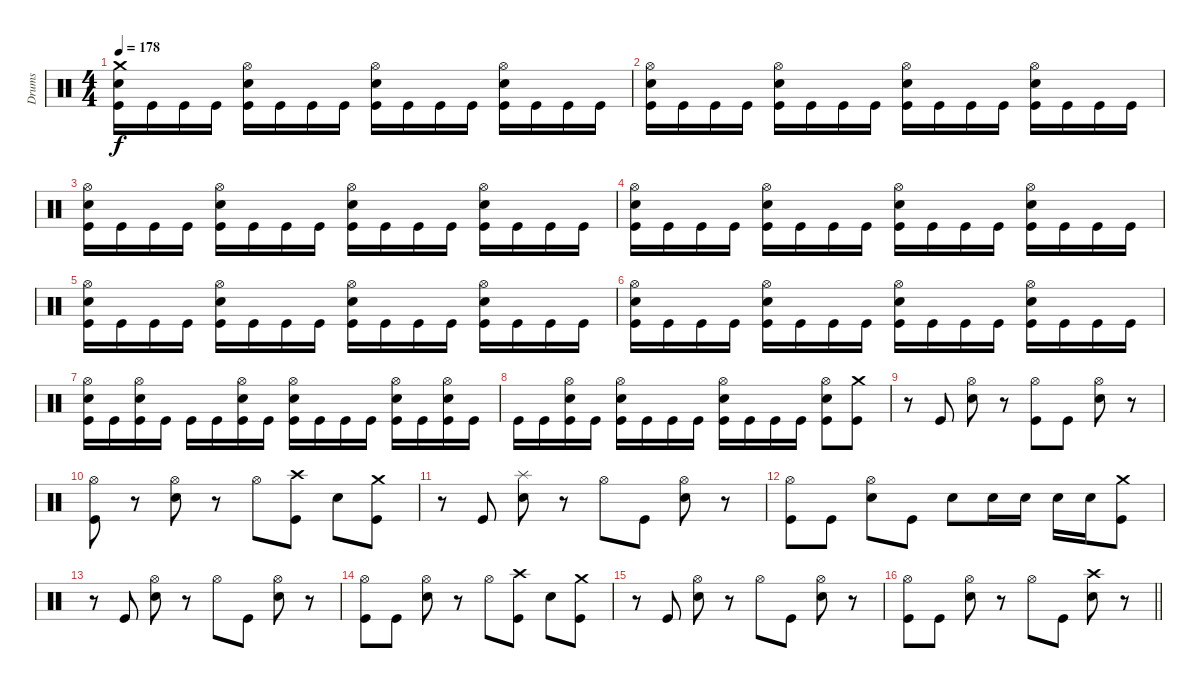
\track ("Drums" "Drums") {instrument percussion}
\staff {score}
\articulation defaults
\ts (4 4)
\tempo 178
\clef neutral
\ks c
("Crash medium (hit)" "Electric Snare (hit)" "Kick (hit)").16{dy f} "Kick (hit)".16 "Kick (hit)".16 "Kick (hit)".16 ("Hi-Hat (open)" "Electric Snare (hit)" "Kick (hit)").16 "Kick (hit)".16 "Kick (hit)".16 "Kick (hit)".16 ("Hi-Hat (open)" "Electric Snare (hit)" "Kick (hit)").16 "Kick (hit)".16 "Kick (hit)".16 "Kick (hit)".16 ("Hi-Hat (open)" "Electric Snare (hit)" "Kick (hit)").16 "Kick (hit)".16 "Kick (hit)".16 "Kick (hit)".16 |
("Hi-Hat (open)" "Electric Snare (hit)" "Kick (hit)").16 "Kick (hit)".16 "Kick (hit)".16 "Kick (hit)".16 ("Hi-Hat (open)" "Electric Snare (hit)" "Kick (hit)").16 "Kick (hit)".16 "Kick (hit)".16 "Kick (hit)".16 ("Hi-Hat (open)" "Electric Snare (hit)" "Kick (hit)").16 "Kick (hit)".16 "Kick (hit)".16 "Kick (hit)".16 ("Hi-Hat (open)" "Electric Snare (hit)" "Kick (hit)").16 "Kick (hit)".16 "Kick (hit)".16 "Kick (hit)".16 |
("Hi-Hat (open)" "Electric Snare (hit)" "Kick (hit)").16 "Kick (hit)".16 "Kick (hit)".16 "Kick (hit)".16 ("Hi-Hat (open)" "Electric Snare (hit)" "Kick (hit)").16 "Kick (hit)".16 "Kick (hit)".16 "Kick (hit)".16 ("Hi-Hat (open)" "Electric Snare (hit)" "Kick (hit)").16 "Kick (hit)".16 "Kick (hit)".16 "Kick (hit)".16 ("Hi-Hat (open)" "Electric Snare (hit)" "Kick (hit)").16 "Kick (hit)".16 "Kick (hit)".16 "Kick (hit)".16 |
("Hi-Hat (open)" "Electric Snare (hit)" "Kick (hit)").16 "Kick (hit)".16 "Kick (hit)".16 "Kick (hit)".16 ("Hi-Hat (open)" "Electric Snare (hit)" "Kick (hit)").16 "Kick (hit)".16 "Kick (hit)".16 "Kick (hit)".16 ("Hi-Hat (open)" "Electric Snare (hit)" "Kick (hit)").16 "Kick (hit)".16 "Kick (hit)".16 "Kick (hit)".16 ("Hi-Hat (open)" "Electric Snare (hit)" "Kick (hit)").16 "Kick (hit)".16 "Kick (hit)".16 "Kick (hit)".16 |
("Hi-Hat (open)" "Electric Snare (hit)" "Kick (hit)").16 "Kick (hit)".16 "Kick (hit)".16 "Kick (hit)".16 ("Hi-Hat (open)" "Electric Snare (hit)" "Kick (hit)").16 "Kick (hit)".16 "Kick (hit)".16 "Kick (hit)".16 ("Hi-Hat (open)" "Electric Snare (hit)" "Kick (hit)").16 "Kick (hit)".16 "Kick (hit)".16 "Kick (hit)".16 ("Hi-Hat (open)" "Electric Snare (hit)" "Kick (hit)").16 "Kick (hit)".16 "Kick (hit)".16 "Kick (hit)".16 |
("Hi-Hat (open)" "Electric Snare (hit)" "Kick (hit)").16 "Kick (hit)".16 "Kick (hit)".16 "Kick (hit)".16 ("Hi-Hat (open)" "Electric Snare (hit)" "Kick (hit)").16 "Kick (hit)".16 "Kick (hit)".16 "Kick (hit)".16 ("Hi-Hat (open)" "Electric Snare (hit)" "Kick (hit)").16 "Kick (hit)".16 "Kick (hit)".16 "Kick (hit)".16 ("Hi-Hat (open)" "Electric Snare (hit)" "Kick (hit)").16 "Kick (hit)".16 "Kick (hit)".16 "Kick (hit)".16 |
("Hi-Hat (open)" "Electric Snare (hit)" "Kick (hit)").16 "Kick (hit)".16 ("Hi-Hat (open)" "Electric Snare (hit)" "Kick (hit)").16 "Kick (hit)".16 "Kick (hit)".16 "Kick (hit)".16 ("Hi-Hat (open)" "Electric Snare (hit)" "Kick (hit)").16 "Kick (hit)".16 ("Hi-Hat (open)" "Electric Snare (hit)" "Kick (hit)").16 "Kick (hit)".16 "Kick (hit)".16 "Kick (hit)".16 ("Hi-Hat (open)" "Electric Snare (hit)" "Kick (hit)").16 "Kick (hit)".16 ("Hi-Hat (open)" "Electric Snare (hit)" "Kick (hit)").16 "Kick (hit)".16 |
"Kick (hit)".16 "Kick (hit)".16 ("Hi-Hat (open)" "Electric Snare (hit)" "Kick (hit)").16 "Kick (hit)".16 ("Hi-Hat (open)" "Electric Snare (hit)" "Kick (hit)").16 "Kick (hit)".16 "Kick (hit)".16 "Kick (hit)".16 ("Hi-Hat (open)" "Electric Snare (hit)" "Kick (hit)").16 "Kick (hit)".16 "Kick (hit)".16 "Kick (hit)".16 ("Hi-Hat (open)" "Electric Snare (hit)" "Kick (hit)").8 ("Crash medium (hit)" "Kick (hit)").8 |
r.8 "Kick (hit)".8 ("Hi-Hat (open)" "Electric Snare (hit)").8 r.8 ("Hi-Hat (open)" "Kick (hit)").8 "Kick (hit)".8 ("Hi-Hat (open)" "Electric Snare (hit)").8 r.8 |
("Hi-Hat (open)" "Kick (hit)").8 r.8 ("Hi-Hat (open)" "Electric Snare (hit)").8 r.8 "Hi-Hat (open)".8 ("Crash high (hit)" "Kick (hit)").8 "Electric Snare (hit)".8 ("Crash medium (hit)" "Kick (hit)").8 |
r.8 "Kick (hit)".8 ("Splash (hit)" "Electric Snare (hit)").8 r.8 "Hi-Hat (open)".8 "Kick (hit)".8 ("Hi-Hat (open)" "Electric Snare (hit)").8 r.8 |
("Hi-Hat (open)" "Kick (hit)").8 "Kick (hit)".8 ("Hi-Hat (open)" "Electric Snare (hit)").8 "Kick (hit)".8 "Electric Snare (hit)".8 "Electric Snare (hit)".16 "Electric Snare (hit)".16 "Electric Snare (hit)".16 "Electric Snare (hit)".16 ("Crash medium (hit)" "Kick (hit)").8 |
r.8 "Kick (hit)".8 ("Hi-Hat (open)" "Electric Snare (hit)").8 r.8 "Hi-Hat (open)".8 "Kick (hit)".8 ("Hi-Hat (open)" "Electric Snare (hit)").8 r.8 |
("Hi-Hat (open)" "Kick (hit)").8 "Kick (hit)".8 ("Hi-Hat (open)" "Electric Snare (hit)").8 r.8 "Hi-Hat (open)".8 ("Crash high (hit)" "Kick (hit)").8 "Electric Snare (hit)".8 ("Crash medium (hit)" "Kick (hit)").8 |
r.8 "Kick (hit)".8 ("Hi-Hat (open)" "Electric Snare (hit)").8 r.8 "Hi-Hat (open)".8 "Kick (hit)".8 ("Hi-Hat (open)" "Electric Snare (hit)").8 r.8 |
\barLineRight lightlight
("Hi-Hat (open)" "Kick (hit)").8 "Kick (hit)".8 ("Hi-Hat (open)" "Electric Snare (hit)").8 r.8 "Hi-Hat (open)".8 "Kick (hit)".8 ("Crash high (hit)" "Electric Snare (hit)").8 r.8
